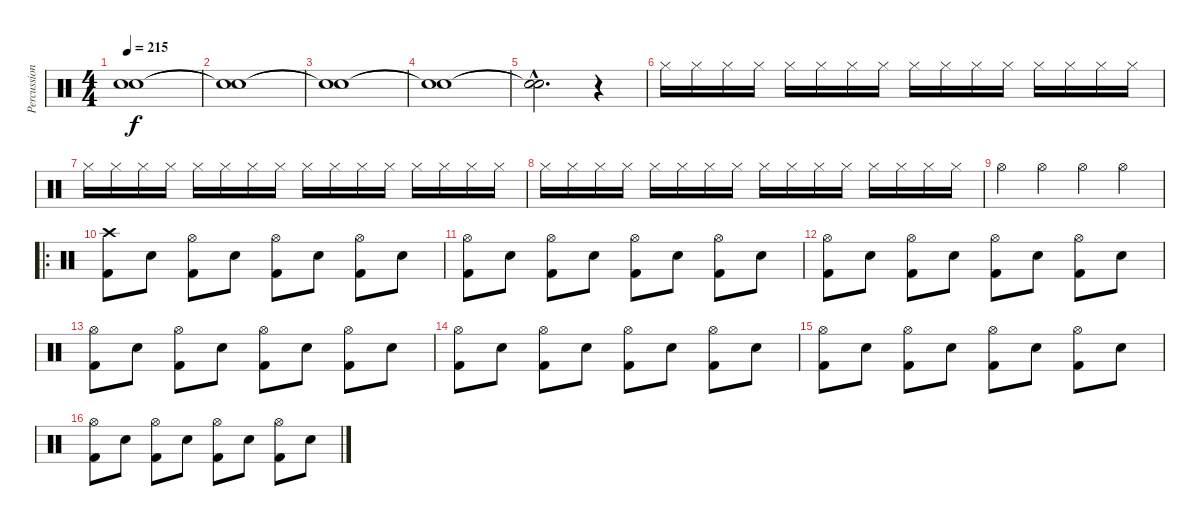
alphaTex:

\track ("Percussion" "Percussion") {instrument percussion}
\staff {score}
\articulation defaults
\ts (4 4)
\tempo 215
\clef neutral
\ks aminor
("Snare (hit)"{t} "Snare (hit)"{t}).1{dy f} |
("Snare (hit)"{t} "Snare (hit)"{t}).1 |
("Snare (hit)"{t} "Snare (hit)"{t}).1 |
("Snare (hit)"{t} "Snare (hit)"{t}).1 |
("Snare (hit)"{hac t} "Snare (hit)"{hac t}).2{d} r.4 |
"Hi-Hat (closed)".16 "Hi-Hat (closed)".16 "Hi-Hat (closed)".16 "Hi-Hat (closed)".16 "Hi-Hat (closed)".16 "Hi-Hat (closed)".16 "Hi-Hat (closed)".16 "Hi-Hat (closed)".16 "Hi-Hat (closed)".16 "Hi-Hat (closed)".16 "Hi-Hat (closed)".16 "Hi-Hat (closed)".16 "Hi-Hat (closed)".16 "Hi-Hat (closed)".16 "Hi-Hat (closed)".16 "Hi-Hat (closed)".16 |
"Hi-Hat (closed)".16 "Hi-Hat (closed)".16 "Hi-Hat (closed)".16 "Hi-Hat (closed)".16 "Hi-Hat (closed)".16 "Hi-Hat (closed)".16 "Hi-Hat (closed)".16 "Hi-Hat (closed)".16 "Hi-Hat (closed)".16 "Hi-Hat (closed)".16 "Hi-Hat (closed)".16 "Hi-Hat (closed)".16 "Hi-Hat (closed)".16 "Hi-Hat (closed)".16 "Hi-Hat (closed)".16 "Hi-Hat (closed)".16 |
"Hi-Hat (closed)".16 "Hi-Hat (closed)".16 "Hi-Hat (closed)".16 "Hi-Hat (closed)".16 "Hi-Hat (closed)".16 "Hi-Hat (closed)".16 "Hi-Hat (closed)".16 "Hi-Hat (closed)".16 "Hi-Hat (closed)".16 "Hi-Hat (closed)".16 "Hi-Hat (closed)".16 "Hi-Hat (closed)".16 "Hi-Hat (closed)".16 "Hi-Hat (closed)".16 "Hi-Hat (closed)".16 "Hi-Hat (closed)".16 |
"Hi-Hat (open)".4 "Hi-Hat (open)".4 "Hi-Hat (open)".4 "Hi-Hat (open)".4 |
\ro
("Crash high (hit)" "Kick (hit) 2").8 "Snare (hit) 2".8 ("Hi-Hat (open)" "Kick (hit) 2").8 "Snare (hit) 2".8 ("Hi-Hat (open)" "Kick (hit) 2").8 "Snare (hit) 2".8 ("Hi-Hat (open)" "Kick (hit) 2").8 "Snare (hit) 2".8 |
("Hi-Hat (open)" "Kick (hit) 2").8 "Snare (hit) 2".8 ("Hi-Hat (open)" "Kick (hit) 2").8 "Snare (hit) 2".8 ("Hi-Hat (open)" "Kick (hit) 2").8 "Snare (hit) 2".8 ("Hi-Hat (open)" "Kick (hit) 2").8 "Snare (hit) 2".8 |
("Hi-Hat (open)" "Kick (hit) 2").8 "Snare (hit) 2".8 ("Hi-Hat (open)" "Kick (hit) 2").8 "Snare (hit) 2".8 ("Hi-Hat (open)" "Kick (hit) 2").8 "Snare (hit) 2".8 ("Hi-Hat (open)" "Kick (hit) 2").8 "Snare (hit) 2".8 |
("Hi-Hat (open)" "Kick (hit) 2").8 "Snare (hit) 2".8 ("Hi-Hat (open)" "Kick (hit) 2").8 "Snare (hit) 2".8 ("Hi-Hat (open)" "Kick (hit) 2").8 "Snare (hit) 2".8 ("Hi-Hat (open)" "Kick (hit) 2").8 "Snare (hit) 2".8 |
("Hi-Hat (open)" "Kick (hit) 2").8 "Snare (hit) 2".8 ("Hi-Hat (open)" "Kick (hit) 2").8 "Snare (hit) 2".8 ("Hi-Hat (open)" "Kick (hit) 2").8 "Snare (hit) 2".8 ("Hi-Hat (open)" "Kick (hit) 2").8 "Snare (hit) 2".8 |
("Hi-Hat (open)" "Kick (hit) 2").8 "Snare (hit) 2".8 ("Hi-Hat (open)" "Kick (hit) 2").8 "Snare (hit) 2".8 ("Hi-Hat (open)" "Kick (hit) 2").8 "Snare (hit) 2".8 ("Hi-Hat (open)" "Kick (hit) 2").8 "Snare (hit) 2".8 |
("Hi-Hat (open)" "Kick (hit) 2").8 "Snare (hit) 2".8 ("Hi-Hat (open)" "Kick (hit) 2").8 "Snare (hit) 2".8 ("Hi-Hat (open)" "Kick (hit) 2").8 "Snare (hit) 2".8 ("Hi-Hat (open)" "Kick (hit) 2").8 "Snare (hit) 2".8
